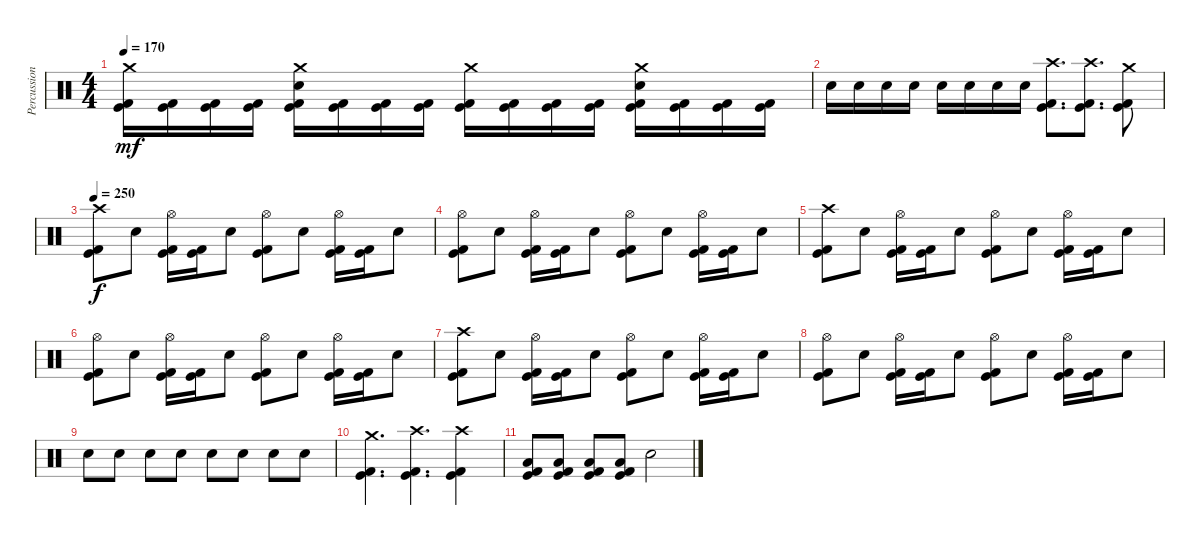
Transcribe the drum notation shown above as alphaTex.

\track ("Percussions" "Percussion") {instrument percussion}
\staff {score}
\articulation defaults
\ts (4 4)
\tempo 170
\clef neutral
\ks c
("Crash medium (hit)" "Kick (hit)" "Kick (hit) 2").16{dy mf} ("Kick (hit)" "Kick (hit) 2").16 ("Kick (hit)" "Kick (hit) 2").16 ("Kick (hit)" "Kick (hit) 2").16 ("Crash medium (hit)" "Electric Snare (hit)" "Kick (hit)" "Kick (hit) 2").16 ("Kick (hit)" "Kick (hit) 2").16 ("Kick (hit)" "Kick (hit) 2").16 ("Kick (hit)" "Kick (hit) 2").16 ("Crash medium (hit)" "Kick (hit)" "Kick (hit) 2").16 ("Kick (hit)" "Kick (hit) 2").16 ("Kick (hit)" "Kick (hit) 2").16 ("Kick (hit)" "Kick (hit) 2").16 ("Crash medium (hit)" "Electric Snare (hit)" "Kick (hit)" "Kick (hit) 2").16 ("Kick (hit)" "Kick (hit) 2").16 ("Kick (hit)" "Kick (hit) 2").16 ("Kick (hit)" "Kick (hit) 2").16 |
"Electric Snare (hit)".16 "Electric Snare (hit)".16 "Electric Snare (hit)".16 "Electric Snare (hit)".16 "Electric Snare (hit)".16 "Electric Snare (hit)".16 "Electric Snare (hit)".16 "Electric Snare (hit)".16 ("Crash high (hit)" "Kick (hit)" "Kick (hit) 2").8{d} ("Crash high (hit)" "Kick (hit)" "Kick (hit) 2").8{d} ("Crash medium (hit)" "Kick (hit)" "Kick (hit) 2").8 |
\tempo 250
("Crash high (hit)" "Kick (hit)" "Kick (hit) 2").8{dy f} "Electric Snare (hit)".8 ("Hi-Hat (open)" "Kick (hit)" "Kick (hit) 2").16 ("Kick (hit)" "Kick (hit) 2").16 "Electric Snare (hit)".8 ("Hi-Hat (open)" "Kick (hit)" "Kick (hit) 2").8 "Electric Snare (hit)".8 ("Hi-Hat (open)" "Kick (hit)" "Kick (hit) 2").16 ("Kick (hit)" "Kick (hit) 2").16 "Electric Snare (hit)".8 |
("Hi-Hat (open)" "Kick (hit)" "Kick (hit) 2").8 "Electric Snare (hit)".8 ("Hi-Hat (open)" "Kick (hit)" "Kick (hit) 2").16 ("Kick (hit)" "Kick (hit) 2").16 "Electric Snare (hit)".8 ("Hi-Hat (open)" "Kick (hit)" "Kick (hit) 2").8 "Electric Snare (hit)".8 ("Hi-Hat (open)" "Kick (hit)" "Kick (hit) 2").16 ("Kick (hit)" "Kick (hit) 2").16 "Electric Snare (hit)".8 |
("Crash high (hit)" "Kick (hit)" "Kick (hit) 2").8 "Electric Snare (hit)".8 ("Hi-Hat (open)" "Kick (hit)" "Kick (hit) 2").16 ("Kick (hit)" "Kick (hit) 2").16 "Electric Snare (hit)".8 ("Hi-Hat (open)" "Kick (hit)" "Kick (hit) 2").8 "Electric Snare (hit)".8 ("Hi-Hat (open)" "Kick (hit)" "Kick (hit) 2").16 ("Kick (hit)" "Kick (hit) 2").16 "Electric Snare (hit)".8 |
("Hi-Hat (open)" "Kick (hit)" "Kick (hit) 2").8 "Electric Snare (hit)".8 ("Hi-Hat (open)" "Kick (hit)" "Kick (hit) 2").16 ("Kick (hit)" "Kick (hit) 2").16 "Electric Snare (hit)".8 ("Hi-Hat (open)" "Kick (hit)" "Kick (hit) 2").8 "Electric Snare (hit)".8 ("Hi-Hat (open)" "Kick (hit)" "Kick (hit) 2").16 ("Kick (hit)" "Kick (hit) 2").16 "Electric Snare (hit)".8 |
("Crash high (hit)" "Kick (hit)" "Kick (hit) 2").8 "Electric Snare (hit)".8 ("Hi-Hat (open)" "Kick (hit)" "Kick (hit) 2").16 ("Kick (hit)" "Kick (hit) 2").16 "Electric Snare (hit)".8 ("Hi-Hat (open)" "Kick (hit)" "Kick (hit) 2").8 "Electric Snare (hit)".8 ("Hi-Hat (open)" "Kick (hit)" "Kick (hit) 2").16 ("Kick (hit)" "Kick (hit) 2").16 "Electric Snare (hit)".8 |
("Hi-Hat (open)" "Kick (hit)" "Kick (hit) 2").8 "Electric Snare (hit)".8 ("Hi-Hat (open)" "Kick (hit)" "Kick (hit) 2").16 ("Kick (hit)" "Kick (hit) 2").16 "Electric Snare (hit)".8 ("Hi-Hat (open)" "Kick (hit)" "Kick (hit) 2").8 "Electric Snare (hit)".8 ("Hi-Hat (open)" "Kick (hit)" "Kick (hit) 2").16 ("Kick (hit)" "Kick (hit) 2").16 "Electric Snare (hit)".8 |
"Electric Snare (hit)".8 "Electric Snare (hit)".8 "Electric Snare (hit)".8 "Electric Snare (hit)".8 "Electric Snare (hit)".8 "Electric Snare (hit)".8 "Electric Snare (hit)".8 "Electric Snare (hit)".8 |
("Crash medium (hit)" "Kick (hit)" "Kick (hit) 2").4{d} ("Crash high (hit)" "Kick (hit)" "Kick (hit) 2").4{d} ("Crash high (hit)" "Kick (hit)" "Kick (hit) 2").4 |
("Low Floor Tom (hit)" "Kick (hit)" "Kick (hit) 2").8 ("Low Floor Tom (hit)" "Kick (hit)" "Kick (hit) 2").8 ("Low Floor Tom (hit)" "Kick (hit)" "Kick (hit) 2").8 ("Low Floor Tom (hit)" "Kick (hit)" "Kick (hit) 2").8 "Electric Snare (hit)".2
